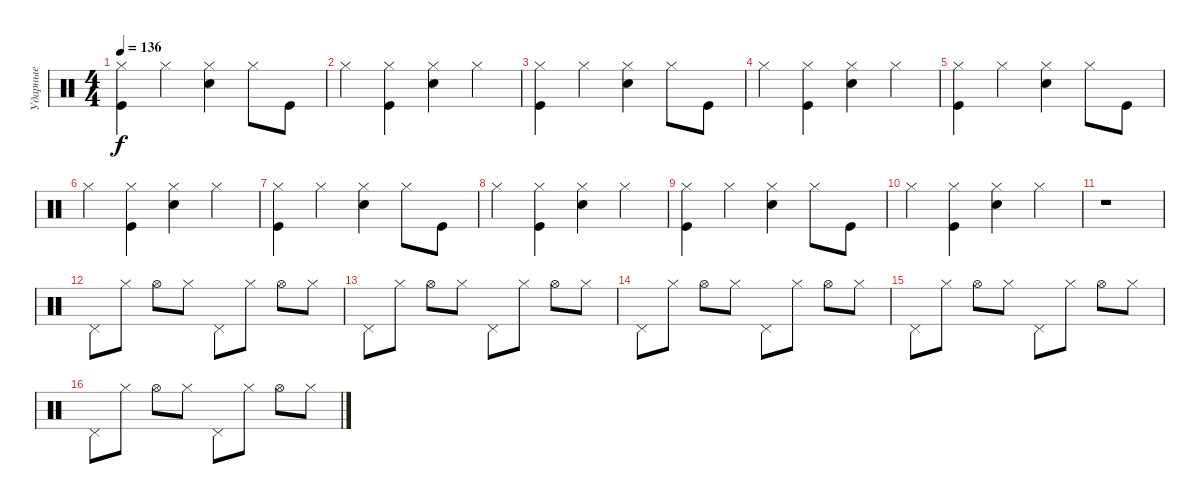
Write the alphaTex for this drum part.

\track ("Ударные" "Ударные") {instrument percussion}
\staff {score}
\articulation defaults
\ts (4 4)
\tempo 136
\clef neutral
\ks c
("Hi-Hat (closed)" "Kick (hit)").4{dy f} "Hi-Hat (closed)".4 ("Hi-Hat (closed)" "Snare (hit) 2").4 "Hi-Hat (closed)".8 "Kick (hit)".8 |
"Hi-Hat (closed)".4 ("Kick (hit)" "Hi-Hat (closed)").4 ("Hi-Hat (closed)" "Snare (hit) 2").4 "Hi-Hat (closed)".4 |
("Hi-Hat (closed)" "Kick (hit)").4 "Hi-Hat (closed)".4 ("Hi-Hat (closed)" "Snare (hit) 2").4 "Hi-Hat (closed)".8 "Kick (hit)".8 |
"Hi-Hat (closed)".4 ("Kick (hit)" "Hi-Hat (closed)").4 ("Hi-Hat (closed)" "Snare (hit) 2").4 "Hi-Hat (closed)".4 |
("Hi-Hat (closed)" "Kick (hit)").4 "Hi-Hat (closed)".4 ("Hi-Hat (closed)" "Snare (hit) 2").4 "Hi-Hat (closed)".8 "Kick (hit)".8 |
"Hi-Hat (closed)".4 ("Kick (hit)" "Hi-Hat (closed)").4 ("Hi-Hat (closed)" "Snare (hit) 2").4 "Hi-Hat (closed)".4 |
("Hi-Hat (closed)" "Kick (hit)").4 "Hi-Hat (closed)".4 ("Hi-Hat (closed)" "Snare (hit) 2").4 "Hi-Hat (closed)".8 "Kick (hit)".8 |
"Hi-Hat (closed)".4 ("Kick (hit)" "Hi-Hat (closed)").4 ("Hi-Hat (closed)" "Snare (hit) 2").4 "Hi-Hat (closed)".4 |
("Hi-Hat (closed)" "Kick (hit)").4 "Hi-Hat (closed)".4 ("Hi-Hat (closed)" "Snare (hit) 2").4 "Hi-Hat (closed)".8 "Kick (hit)".8 |
"Hi-Hat (closed)".4 ("Kick (hit)" "Hi-Hat (closed)").4 ("Hi-Hat (closed)" "Snare (hit) 2").4 "Hi-Hat (closed)".4 |
r.1 |
"Pedal Hi-Hat (hit)".8 "Hi-Hat (closed)".8 "Hi-Hat (open)".8 "Hi-Hat (closed)".8 "Pedal Hi-Hat (hit)".8 "Hi-Hat (closed)".8 "Hi-Hat (open)".8 "Hi-Hat (closed)".8 |
"Pedal Hi-Hat (hit)".8 "Hi-Hat (closed)".8 "Hi-Hat (open)".8 "Hi-Hat (closed)".8 "Pedal Hi-Hat (hit)".8 "Hi-Hat (closed)".8 "Hi-Hat (open)".8 "Hi-Hat (closed)".8 |
"Pedal Hi-Hat (hit)".8 "Hi-Hat (closed)".8 "Hi-Hat (open)".8 "Hi-Hat (closed)".8 "Pedal Hi-Hat (hit)".8 "Hi-Hat (closed)".8 "Hi-Hat (open)".8 "Hi-Hat (closed)".8 |
"Pedal Hi-Hat (hit)".8 "Hi-Hat (closed)".8 "Hi-Hat (open)".8 "Hi-Hat (closed)".8 "Pedal Hi-Hat (hit)".8 "Hi-Hat (closed)".8 "Hi-Hat (open)".8 "Hi-Hat (closed)".8 |
"Pedal Hi-Hat (hit)".8 "Hi-Hat (closed)".8 "Hi-Hat (open)".8 "Hi-Hat (closed)".8 "Pedal Hi-Hat (hit)".8 "Hi-Hat (closed)".8 "Hi-Hat (open)".8 "Hi-Hat (closed)".8
